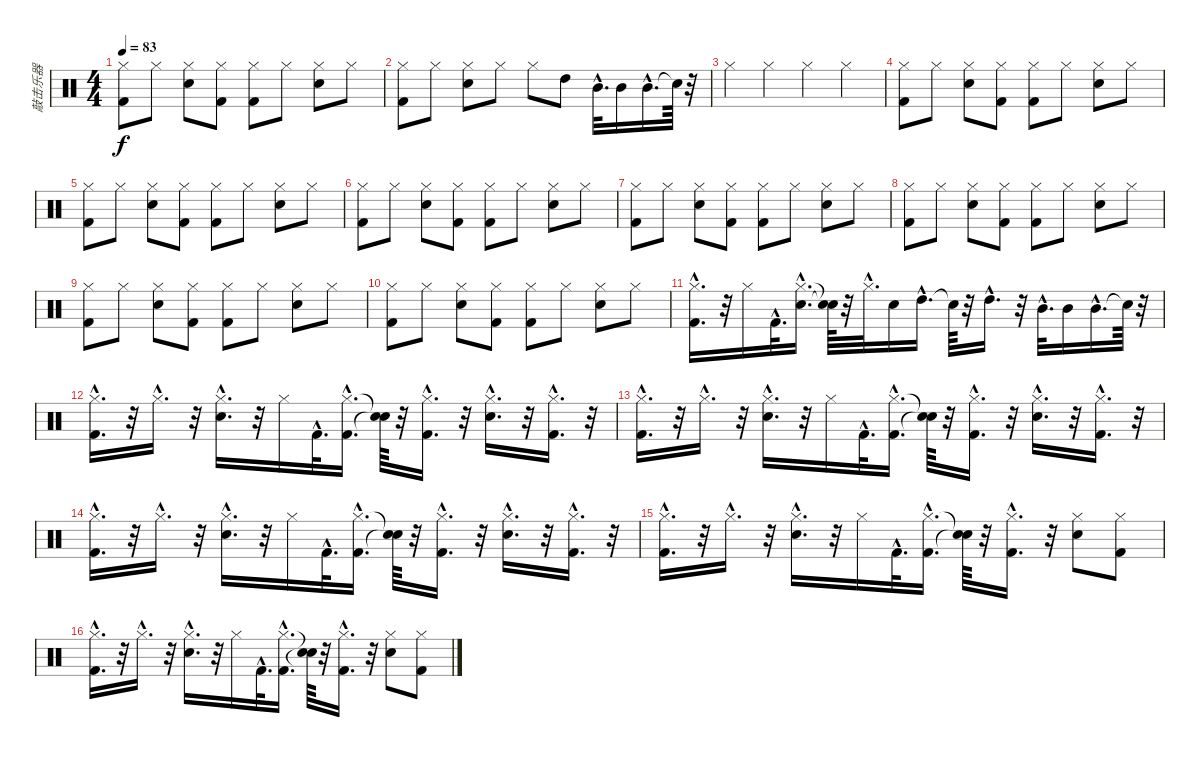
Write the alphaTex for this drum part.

\track ("敲击乐器" "敲击乐器") {instrument percussion}
\staff {score}
\articulation defaults
\ts (4 4)
\tempo 83
\clef neutral
\ks c
("Kick (hit) 2" "Hi-Hat (closed)").8{dy f} "Hi-Hat (closed)".8 ("Hi-Hat (closed)" "Snare (hit) 2").8 ("Hi-Hat (closed)" "Kick (hit) 2").8 ("Kick (hit) 2" "Hi-Hat (closed)").8 "Hi-Hat (closed)".8 ("Hi-Hat (closed)" "Snare (hit) 2").8 "Hi-Hat (closed)".8 |
("Kick (hit) 2" "Hi-Hat (closed)").8 "Hi-Hat (closed)".8 ("Hi-Hat (closed)" "Snare (hit) 2").8 "Hi-Hat (closed)".8 "Hi-Hat (closed)".8 "High Tom (hit)".8 "Mid Tom (hit)"{hac}.32{d} "Mid Tom (hit)".16 "Mid Tom (hit)"{hac}.16{d} "Snare (hit)"{t}.64 r.32 |
"Hi-Hat (closed)".4 "Hi-Hat (closed)".4 "Hi-Hat (closed)".4 "Hi-Hat (closed)".4 |
("Kick (hit) 2" "Hi-Hat (closed)").8 "Hi-Hat (closed)".8 ("Hi-Hat (closed)" "Snare (hit) 2").8 ("Hi-Hat (closed)" "Kick (hit) 2").8 ("Kick (hit) 2" "Hi-Hat (closed)").8 "Hi-Hat (closed)".8 ("Hi-Hat (closed)" "Snare (hit) 2").8 "Hi-Hat (closed)".8 |
("Kick (hit) 2" "Hi-Hat (closed)").8 "Hi-Hat (closed)".8 ("Hi-Hat (closed)" "Snare (hit) 2").8 ("Hi-Hat (closed)" "Kick (hit) 2").8 ("Kick (hit) 2" "Hi-Hat (closed)").8 "Hi-Hat (closed)".8 ("Hi-Hat (closed)" "Snare (hit) 2").8 "Hi-Hat (closed)".8 |
("Kick (hit) 2" "Hi-Hat (closed)").8 "Hi-Hat (closed)".8 ("Hi-Hat (closed)" "Snare (hit) 2").8 ("Hi-Hat (closed)" "Kick (hit) 2").8 ("Kick (hit) 2" "Hi-Hat (closed)").8 "Hi-Hat (closed)".8 ("Hi-Hat (closed)" "Snare (hit) 2").8 "Hi-Hat (closed)".8 |
("Kick (hit) 2" "Hi-Hat (closed)").8 "Hi-Hat (closed)".8 ("Hi-Hat (closed)" "Snare (hit) 2").8 ("Hi-Hat (closed)" "Kick (hit) 2").8 ("Kick (hit) 2" "Hi-Hat (closed)").8 "Hi-Hat (closed)".8 ("Hi-Hat (closed)" "Snare (hit) 2").8 "Hi-Hat (closed)".8 |
("Kick (hit) 2" "Hi-Hat (closed)").8 "Hi-Hat (closed)".8 ("Hi-Hat (closed)" "Snare (hit) 2").8 ("Hi-Hat (closed)" "Kick (hit) 2").8 ("Kick (hit) 2" "Hi-Hat (closed)").8 "Hi-Hat (closed)".8 ("Hi-Hat (closed)" "Snare (hit) 2").8 "Hi-Hat (closed)".8 |
("Kick (hit) 2" "Hi-Hat (closed)").8 "Hi-Hat (closed)".8 ("Hi-Hat (closed)" "Snare (hit) 2").8 ("Hi-Hat (closed)" "Kick (hit) 2").8 ("Kick (hit) 2" "Hi-Hat (closed)").8 "Hi-Hat (closed)".8 ("Hi-Hat (closed)" "Snare (hit) 2").8 "Hi-Hat (closed)".8 |
("Kick (hit) 2" "Hi-Hat (closed)").8 "Hi-Hat (closed)".8 ("Hi-Hat (closed)" "Snare (hit) 2").8 ("Hi-Hat (closed)" "Kick (hit) 2").8 ("Kick (hit) 2" "Hi-Hat (closed)").8 "Hi-Hat (closed)".8 ("Hi-Hat (closed)" "Snare (hit) 2").8 "Hi-Hat (closed)".8 |
("Hi-Hat (closed)"{hac} "Kick (hit) 2"{hac}).16{d} r.32 "Hi-Hat (closed)".16 "Kick (hit) 2"{hac}.32{d} ("Hi-Hat (closed)"{hac} "Snare (hit) 2"{hac}).16{d} ("Snare (hit)"{t} "Snare (hit)"{t}).64 r.32 "Hi-Hat (closed)"{hac}.32{d} "Snare (hit) 2".16 "High Tom (hit)"{hac}.16{d} "Snare (hit)"{t}.64 r.32 "High Tom (hit)"{hac}.16{d} r.32 "Mid Tom (hit)"{hac}.32{d} "Mid Tom (hit)".16 "Mid Tom (hit)"{hac}.16{d} "Snare (hit)"{t}.64 r.32 |
("Kick (hit) 2"{hac} "Hi-Hat (closed)"{hac}).16{d} r.32 "Hi-Hat (closed)"{hac}.16{d} r.32 ("Hi-Hat (closed)"{hac} "Snare (hit) 2"{hac}).16{d} r.32 "Hi-Hat (closed)".16 "Kick (hit) 2"{hac}.32{d} ("Hi-Hat (closed)"{hac} "Kick (hit) 2"{hac}).16{d} ("Snare (hit)"{t} "Snare (hit)"{t}).64 r.32 ("Hi-Hat (closed)"{hac} "Kick (hit) 2"{hac}).16{d} r.32 ("Hi-Hat (closed)"{hac} "Snare (hit) 2"{hac}).16{d} r.32 ("Hi-Hat (closed)"{hac} "Kick (hit) 2"{hac}).16{d} r.32 |
("Hi-Hat (closed)"{hac} "Kick (hit) 2"{hac}).16{d} r.32 "Hi-Hat (closed)"{hac}.16{d} r.32 ("Hi-Hat (closed)"{hac} "Snare (hit) 2"{hac}).16{d} r.32 "Hi-Hat (closed)".16 "Kick (hit) 2"{hac}.32{d} ("Hi-Hat (closed)"{hac} "Kick (hit) 2"{hac}).16{d} ("Snare (hit)"{t} "Snare (hit)"{t}).64 r.32 ("Hi-Hat (closed)"{hac} "Kick (hit) 2"{hac}).16{d} r.32 ("Snare (hit) 2"{hac} "Hi-Hat (closed)"{hac}).16{d} r.32 ("Hi-Hat (closed)"{hac} "Kick (hit) 2"{hac}).16{d} r.32 |
("Hi-Hat (closed)"{hac} "Kick (hit) 2"{hac}).16{d} r.32 "Hi-Hat (closed)"{hac}.16{d} r.32 ("Snare (hit) 2"{hac} "Hi-Hat (closed)"{hac}).16{d} r.32 "Hi-Hat (closed)".16 "Kick (hit) 2"{hac}.32{d} ("Hi-Hat (closed)"{hac} "Kick (hit) 2"{hac}).16{d} ("Snare (hit)"{t} "Snare (hit)"{t}).64 r.32 ("Hi-Hat (closed)"{hac} "Kick (hit) 2"{hac}).16{d} r.32 ("Hi-Hat (closed)"{hac} "Snare (hit) 2"{hac}).16{d} r.32 ("Hi-Hat (closed)"{hac} "Kick (hit) 2"{hac}).16{d} r.32 |
("Hi-Hat (closed)"{hac} "Kick (hit) 2"{hac}).16{d} r.32 "Hi-Hat (closed)"{hac}.16{d} r.32 ("Hi-Hat (closed)"{hac} "Snare (hit) 2"{hac}).16{d} r.32 "Hi-Hat (closed)".16 "Kick (hit) 2"{hac}.32{d} ("Hi-Hat (closed)"{hac} "Kick (hit) 2"{hac}).16{d} ("Snare (hit)"{t} "Snare (hit)"{t}).64 r.32 ("Hi-Hat (closed)"{hac} "Kick (hit) 2"{hac}).16{d} r.32 ("Snare (hit) 2" "Hi-Hat (closed)").8 ("Kick (hit) 2" "Hi-Hat (closed)").8 |
("Hi-Hat (closed)"{hac} "Kick (hit) 2"{hac}).16{d} r.32 "Hi-Hat (closed)"{hac}.16{d} r.32 ("Snare (hit) 2"{hac} "Hi-Hat (closed)"{hac}).16{d} r.32 "Hi-Hat (closed)".16 "Kick (hit) 2"{hac}.32{d} ("Hi-Hat (closed)"{hac} "Kick (hit) 2"{hac}).16{d} ("Snare (hit)"{t} "Snare (hit)"{t}).64 r.32 ("Hi-Hat (closed)"{hac} "Kick (hit) 2"{hac}).16{d} r.32 ("Snare (hit) 2" "Hi-Hat (closed)").8 ("Hi-Hat (closed)" "Kick (hit) 2").8
